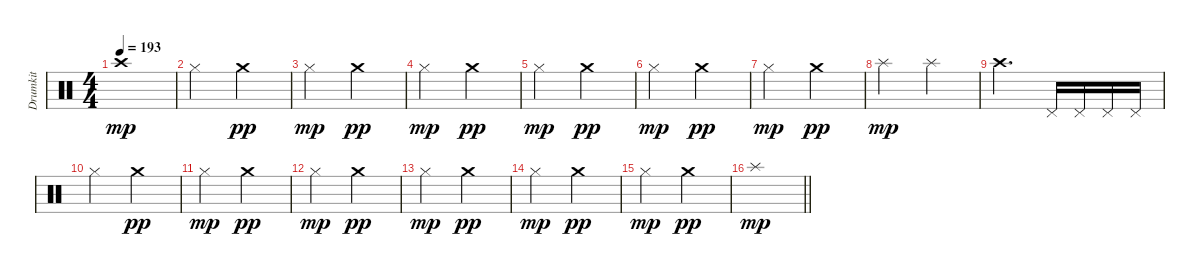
\track ("Drumkit" "Drumkit") {instrument percussion}
\staff {score}
\articulation defaults
\ts (4 4)
\tempo 193
\clef neutral
\ks c "Crash high (hit)".1{dy mp}
|
"Hi-Hat (closed)".2 "Crash medium (hit)".2{dy pp} |
"Hi-Hat (closed)".2{dy mp} "Crash medium (hit)".2{dy pp} |
"Hi-Hat (closed)".2{dy mp} "Crash medium (hit)".2{dy pp} |
"Hi-Hat (closed)".2{dy mp} "Crash medium (hit)".2{dy pp} |
"Hi-Hat (closed)".2{dy mp} "Crash medium (hit)".2{dy pp} |
"Hi-Hat (closed)".2{dy mp} "Crash medium (hit)".2{dy pp} |
"Splash (hit)".2{dy mp} "Splash (hit)".2 |
"Crash high (hit)".2{d} "Pedal Hi-Hat (hit)".16 "Pedal Hi-Hat (hit)".16 "Pedal Hi-Hat (hit)".16 "Pedal Hi-Hat (hit)".16 |
"Hi-Hat (closed)".2 "Crash medium (hit)".2{dy pp} |
"Hi-Hat (closed)".2{dy mp} "Crash medium (hit)".2{dy pp} |
"Hi-Hat (closed)".2{dy mp} "Crash medium (hit)".2{dy pp} |
"Hi-Hat (closed)".2{dy mp} "Crash medium (hit)".2{dy pp} |
"Hi-Hat (closed)".2{dy mp} "Crash medium (hit)".2{dy pp} |
"Hi-Hat (closed)".2{dy mp} "Crash medium (hit)".2{dy pp} |
\barLineRight lightlight "Splash (hit)".1{dy mp}
